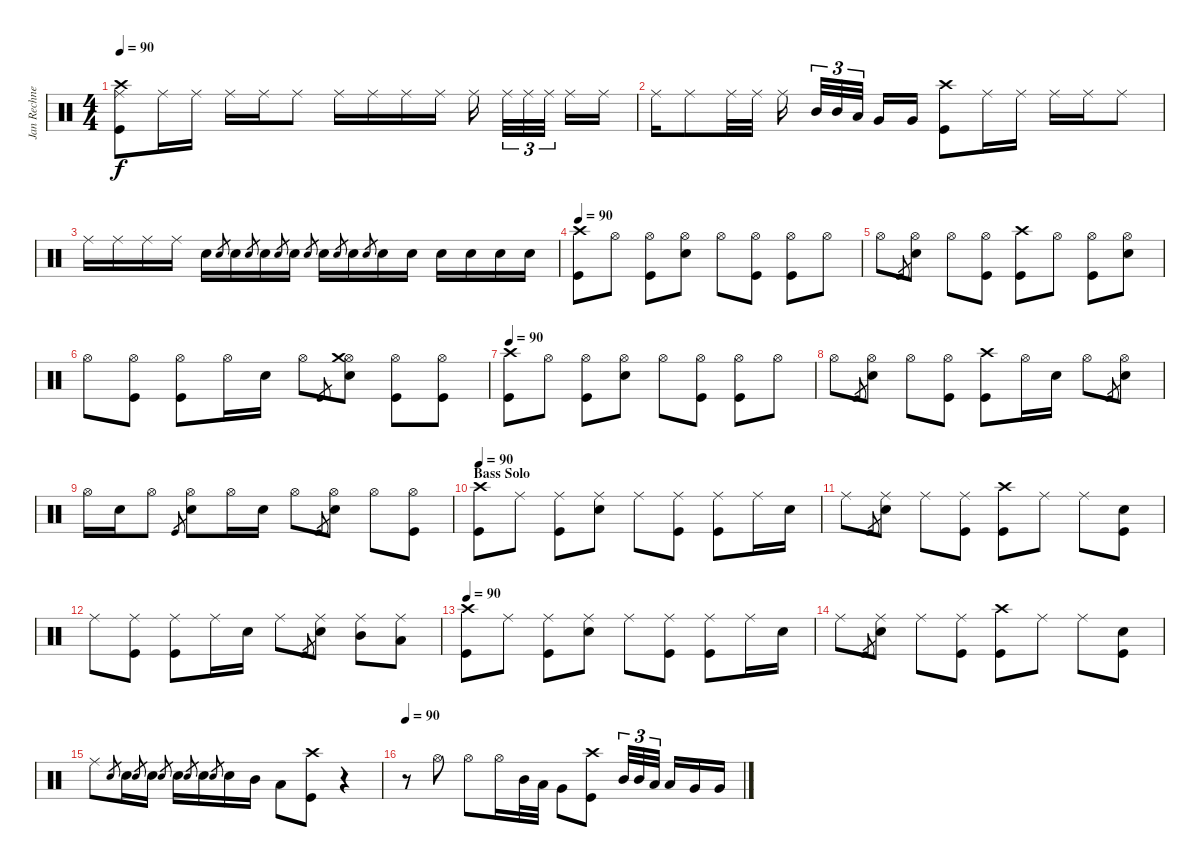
\track ("Jan Rechnerger" "Jan Rechne") {instrument percussion}
\staff {score}
\articulation defaults
\ts (4 4)
\tempo 90
\clef neutral
\ks c
("Kick (hit)" "Ride (middle)" "Crash high (hit)").8{dy f} "Ride (middle)".16 "Ride (middle)".16 "Ride (middle)".16 "Ride (middle)".16 "Ride (middle)".8 "Ride (middle)".16 "Ride (middle)".16 "Ride (middle)".16 "Ride (middle)".16 "Ride (middle)".16 "Ride (middle)".32{tu (3 2)} "Ride (middle)".32{tu (3 2)} "Ride (middle)".32{tu (3 2)} "Ride (middle)".16 "Ride (middle)".16 |
"Ride (middle)".16 "Ride (middle)".8 "Ride (middle)".32 "Ride (middle)".32 "Ride (middle)".16 "Mid Tom (hit)".32{tu (3 2)} "Mid Tom (hit)".32{tu (3 2)} "Low Tom (hit)".32{tu (3 2)} "Very Low Tom (hit)".16 "Very Low Tom (hit)".16 ("Kick (hit)" "Crash high (hit)").8 "Ride (middle)".16 "Ride (middle)".16 "Ride (middle)".16 "Ride (middle)".16 "Ride (middle)".8 |
"Ride (middle)".16 "Ride (middle)".16 "Ride (middle)".16 "Ride (middle)".16 "Snare (hit) 2".16 "Snare (hit) 2".8{gr} "Snare (hit) 2".16 "Snare (hit) 2".8{gr} "Snare (hit) 2".16 "Snare (hit) 2".8{gr} "Snare (hit) 2".16 "Snare (hit) 2".8{gr} "Snare (hit) 2".16 "Snare (hit) 2".8{gr} "Snare (hit) 2".16 "Snare (hit) 2".8{gr} "Snare (hit) 2".16 "Snare (hit) 2".16 "Snare (hit) 2".16 "Snare (hit) 2".16 "Snare (hit) 2".16 "Snare (hit) 2".16 |
\tempo 90
("Kick (hit)" "Crash high (hit)").8 "Hi-Hat (open)".8 ("Kick (hit)" "Hi-Hat (open)").8 ("Snare (hit) 2" "Hi-Hat (open)").8 "Hi-Hat (open)".8 ("Kick (hit)" "Hi-Hat (open)").8 ("Kick (hit)" "Hi-Hat (open)").8 "Hi-Hat (open)".8 |
"Hi-Hat (open)".8 "Kick (hit)".8{gr} ("Snare (hit) 2" "Hi-Hat (open)").8 "Hi-Hat (open)".8 ("Kick (hit)" "Hi-Hat (open)").8 ("Kick (hit)" "Crash high (hit)").8 "Hi-Hat (open)".8 ("Kick (hit)" "Hi-Hat (open)").8 ("Snare (hit) 2" "Hi-Hat (open)").8 |
"Hi-Hat (open)".8 ("Kick (hit)" "Hi-Hat (open)").8 ("Kick (hit)" "Hi-Hat (open)").8 "Hi-Hat (open)".16 "Snare (hit) 2".16 "Hi-Hat (open)".8 "Kick (hit)".8{gr} ("Snare (hit) 2" "Hi-Hat (open)" "Crash medium (hit)").8 ("Kick (hit)" "Hi-Hat (open)").8 ("Kick (hit)" "Hi-Hat (open)").8 |
\tempo 90
("Kick (hit)" "Crash high (hit)").8 "Hi-Hat (open)".8 ("Kick (hit)" "Hi-Hat (open)").8 ("Snare (hit) 2" "Hi-Hat (open)").8 "Hi-Hat (open)".8 ("Kick (hit)" "Hi-Hat (open)").8 ("Kick (hit)" "Hi-Hat (open)").8 "Hi-Hat (open)".8 |
"Hi-Hat (open)".8 "Kick (hit)".8{gr} ("Snare (hit) 2" "Hi-Hat (open)").8 "Hi-Hat (open)".8 ("Kick (hit)" "Hi-Hat (open)").8 ("Kick (hit)" "Crash high (hit)").8 "Hi-Hat (open)".16 "Snare (hit) 2".16 "Hi-Hat (open)".8 "Kick (hit)".8{gr} ("Snare (hit) 2" "Hi-Hat (open)").8 |
"Hi-Hat (open)".16 "Snare (hit) 2".16 "Hi-Hat (open)".8 "Kick (hit)".8{gr} ("Snare (hit) 2" "Hi-Hat (open)").8 "Hi-Hat (open)".16 "Snare (hit) 2".16 "Hi-Hat (open)".8 "Kick (hit)".8{gr} ("Snare (hit) 2" "Hi-Hat (open)").8 "Hi-Hat (open)".8 ("Kick (hit)" "Hi-Hat (open)").8 |
\section ("" "Bass Solo")
\tempo 90
("Kick (hit)" "Crash high (hit)").8{volume 12} "Ride (middle)".8 ("Kick (hit)" "Ride (middle)").8 ("Snare (hit) 2" "Ride (middle)").8 "Ride (middle)".8 ("Kick (hit)" "Ride (middle)").8 ("Kick (hit)" "Ride (middle)").8 "Ride (middle)".16 "Snare (hit) 2".16 |
"Ride (middle)".8 "Kick (hit)".8{gr} ("Snare (hit) 2" "Ride (middle)").8 "Ride (middle)".8 ("Kick (hit)" "Ride (middle)").8 ("Kick (hit)" "Crash high (hit)").8 "Ride (middle)".8 "Ride (middle)".8 ("Kick (hit)" "Snare (hit) 2").8 |
"Ride (middle)".8 ("Kick (hit)" "Ride (middle)").8 ("Kick (hit)" "Ride (middle)").8 "Ride (middle)".16 "Snare (hit) 2".16 "Ride (middle)".8 "Kick (hit)".8{gr} ("Snare (hit) 2" "Ride (middle)").8 ("Mid Tom (hit)" "Ride (middle)").8 ("Low Tom (hit)" "Ride (middle)").8 |
\tempo 90
("Kick (hit)" "Crash high (hit)").8 "Ride (middle)".8 ("Kick (hit)" "Ride (middle)").8 ("Snare (hit) 2" "Ride (middle)").8 "Ride (middle)".8 ("Kick (hit)" "Ride (middle)").8 ("Kick (hit)" "Ride (middle)").8 "Ride (middle)".16 "Snare (hit) 2".16 |
"Ride (middle)".8 "Kick (hit)".8{gr} ("Snare (hit) 2" "Ride (middle)").8 "Ride (middle)".8 ("Kick (hit)" "Ride (middle)").8 ("Kick (hit)" "Crash high (hit)").8 "Ride (middle)".8 "Ride (middle)".8 ("Kick (hit)" "Snare (hit) 2").8 |
"Ride (middle)".8 "Snare (hit) 2".8{gr} "Snare (hit) 2".16 "Snare (hit) 2".8{gr} "Snare (hit) 2".16 "Snare (hit) 2".8{gr} "Snare (hit) 2".16 "Snare (hit) 2".8{gr} "Snare (hit) 2".16 "Snare (hit) 2".8{gr} "Snare (hit) 2".16 "Mid Tom (hit)".16 "Low Tom (hit)".8 ("Kick (hit)" "Crash high (hit)").8 r.4 |
\tempo 90
r.8 "Hi-Hat (open)".8 "Hi-Hat (open)".8 "Hi-Hat (open)".16 "Mid Tom (hit)".32 "Low Tom (hit)".32 "Very Low Tom (hit)".8 ("Kick (hit)" "Crash high (hit)").8 "Mid Tom (hit)".32{tu (3 2)} "Mid Tom (hit)".32{tu (3 2)} "Low Tom (hit)".32{tu (3 2)} "Low Tom (hit)".16 "Very Low Tom (hit)".16 "Very Low Tom (hit)".16
